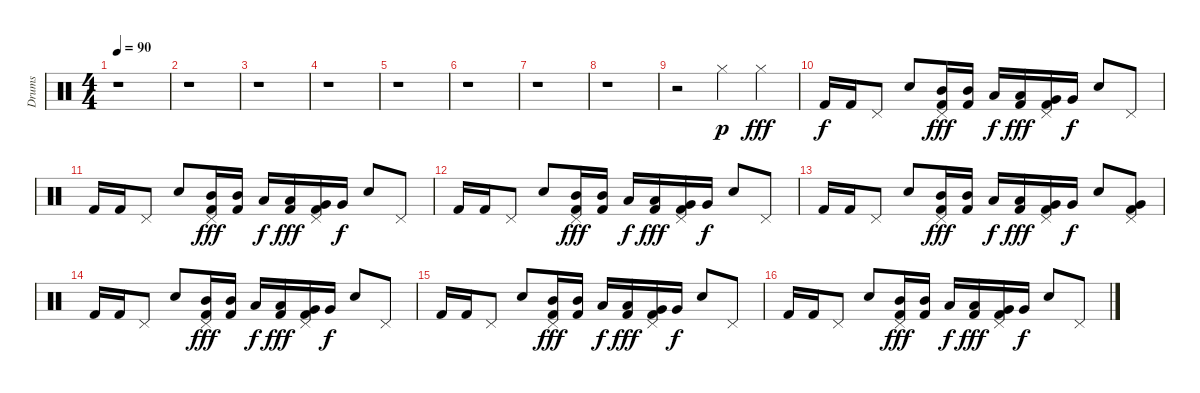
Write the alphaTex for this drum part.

\track ("Drums" "Drums") {instrument percussion}
\staff {score}
\articulation defaults
\ts (4 4)
\tempo 90
\clef neutral
\ks c
r.1{dy p} |
r.1 |
r.1 |
r.1 |
r.1 |
r.1 |
r.1 |
r.1 |
r.2 "Hi-Hat (closed)".4 "Hi-Hat (closed)".4{dy fff} |
"Kick (hit) 2".16{dy f} "Kick (hit) 2".16 "Pedal Hi-Hat (hit)".8 "Electric Snare (hit)".8 ("Pedal Hi-Hat (hit)" "Mid Tom (hit)" "Kick (hit) 2").16{dy fff} ("Mid Tom (hit)" "Kick (hit) 2").16 "Low Tom (hit)".16{dy f} ("Low Tom (hit)" "Kick (hit) 2").16{dy fff} ("Pedal Hi-Hat (hit)" "Very Low Tom (hit)" "Kick (hit) 2").16 "Very Low Tom (hit)".16{dy f} "Electric Snare (hit)".8 "Pedal Hi-Hat (hit)".8 |
"Kick (hit) 2".16 "Kick (hit) 2".16 "Pedal Hi-Hat (hit)".8 "Electric Snare (hit)".8 ("Pedal Hi-Hat (hit)" "Mid Tom (hit)" "Kick (hit) 2").16{dy fff} ("Mid Tom (hit)" "Kick (hit) 2").16 "Low Tom (hit)".16{dy f} ("Low Tom (hit)" "Kick (hit) 2").16{dy fff} ("Pedal Hi-Hat (hit)" "Very Low Tom (hit)" "Kick (hit) 2").16 "Very Low Tom (hit)".16{dy f} "Electric Snare (hit)".8 "Pedal Hi-Hat (hit)".8 |
"Kick (hit) 2".16 "Kick (hit) 2".16 "Pedal Hi-Hat (hit)".8 "Electric Snare (hit)".8 ("Pedal Hi-Hat (hit)" "Mid Tom (hit)" "Kick (hit) 2").16{dy fff} ("Mid Tom (hit)" "Kick (hit) 2").16 "Low Tom (hit)".16{dy f} ("Low Tom (hit)" "Kick (hit) 2").16{dy fff} ("Pedal Hi-Hat (hit)" "Very Low Tom (hit)" "Kick (hit) 2").16 "Very Low Tom (hit)".16{dy f} "Electric Snare (hit)".8 "Pedal Hi-Hat (hit)".8 |
"Kick (hit) 2".16 "Kick (hit) 2".16 "Pedal Hi-Hat (hit)".8 "Electric Snare (hit)".8 ("Pedal Hi-Hat (hit)" "Mid Tom (hit)" "Kick (hit) 2").16{dy fff} ("Mid Tom (hit)" "Kick (hit) 2").16 "Low Tom (hit)".16{dy f} ("Low Tom (hit)" "Kick (hit) 2").16{dy fff} ("Pedal Hi-Hat (hit)" "Very Low Tom (hit)" "Kick (hit) 2").16 "Very Low Tom (hit)".16{dy f} "Electric Snare (hit)".8 ("Pedal Hi-Hat (hit)" "Very Low Tom (hit)" "Kick (hit) 2").8 |
"Kick (hit) 2".16 "Kick (hit) 2".16 "Pedal Hi-Hat (hit)".8 "Electric Snare (hit)".8 ("Pedal Hi-Hat (hit)" "Mid Tom (hit)" "Kick (hit) 2").16{dy fff} ("Mid Tom (hit)" "Kick (hit) 2").16 "Low Tom (hit)".16{dy f} ("Low Tom (hit)" "Kick (hit) 2").16{dy fff} ("Pedal Hi-Hat (hit)" "Very Low Tom (hit)" "Kick (hit) 2").16 "Very Low Tom (hit)".16{dy f} "Electric Snare (hit)".8 "Pedal Hi-Hat (hit)".8 |
"Kick (hit) 2".16 "Kick (hit) 2".16 "Pedal Hi-Hat (hit)".8 "Electric Snare (hit)".8 ("Pedal Hi-Hat (hit)" "Mid Tom (hit)" "Kick (hit) 2").16{dy fff} ("Mid Tom (hit)" "Kick (hit) 2").16 "Low Tom (hit)".16{dy f} ("Low Tom (hit)" "Kick (hit) 2").16{dy fff} ("Pedal Hi-Hat (hit)" "Very Low Tom (hit)" "Kick (hit) 2").16 "Very Low Tom (hit)".16{dy f} "Electric Snare (hit)".8 "Pedal Hi-Hat (hit)".8 |
"Kick (hit) 2".16 "Kick (hit) 2".16 "Pedal Hi-Hat (hit)".8 "Electric Snare (hit)".8 ("Pedal Hi-Hat (hit)" "Mid Tom (hit)" "Kick (hit) 2").16{dy fff} ("Mid Tom (hit)" "Kick (hit) 2").16 "Low Tom (hit)".16{dy f} ("Low Tom (hit)" "Kick (hit) 2").16{dy fff} ("Pedal Hi-Hat (hit)" "Very Low Tom (hit)" "Kick (hit) 2").16 "Very Low Tom (hit)".16{dy f} "Electric Snare (hit)".8 "Pedal Hi-Hat (hit)".8
